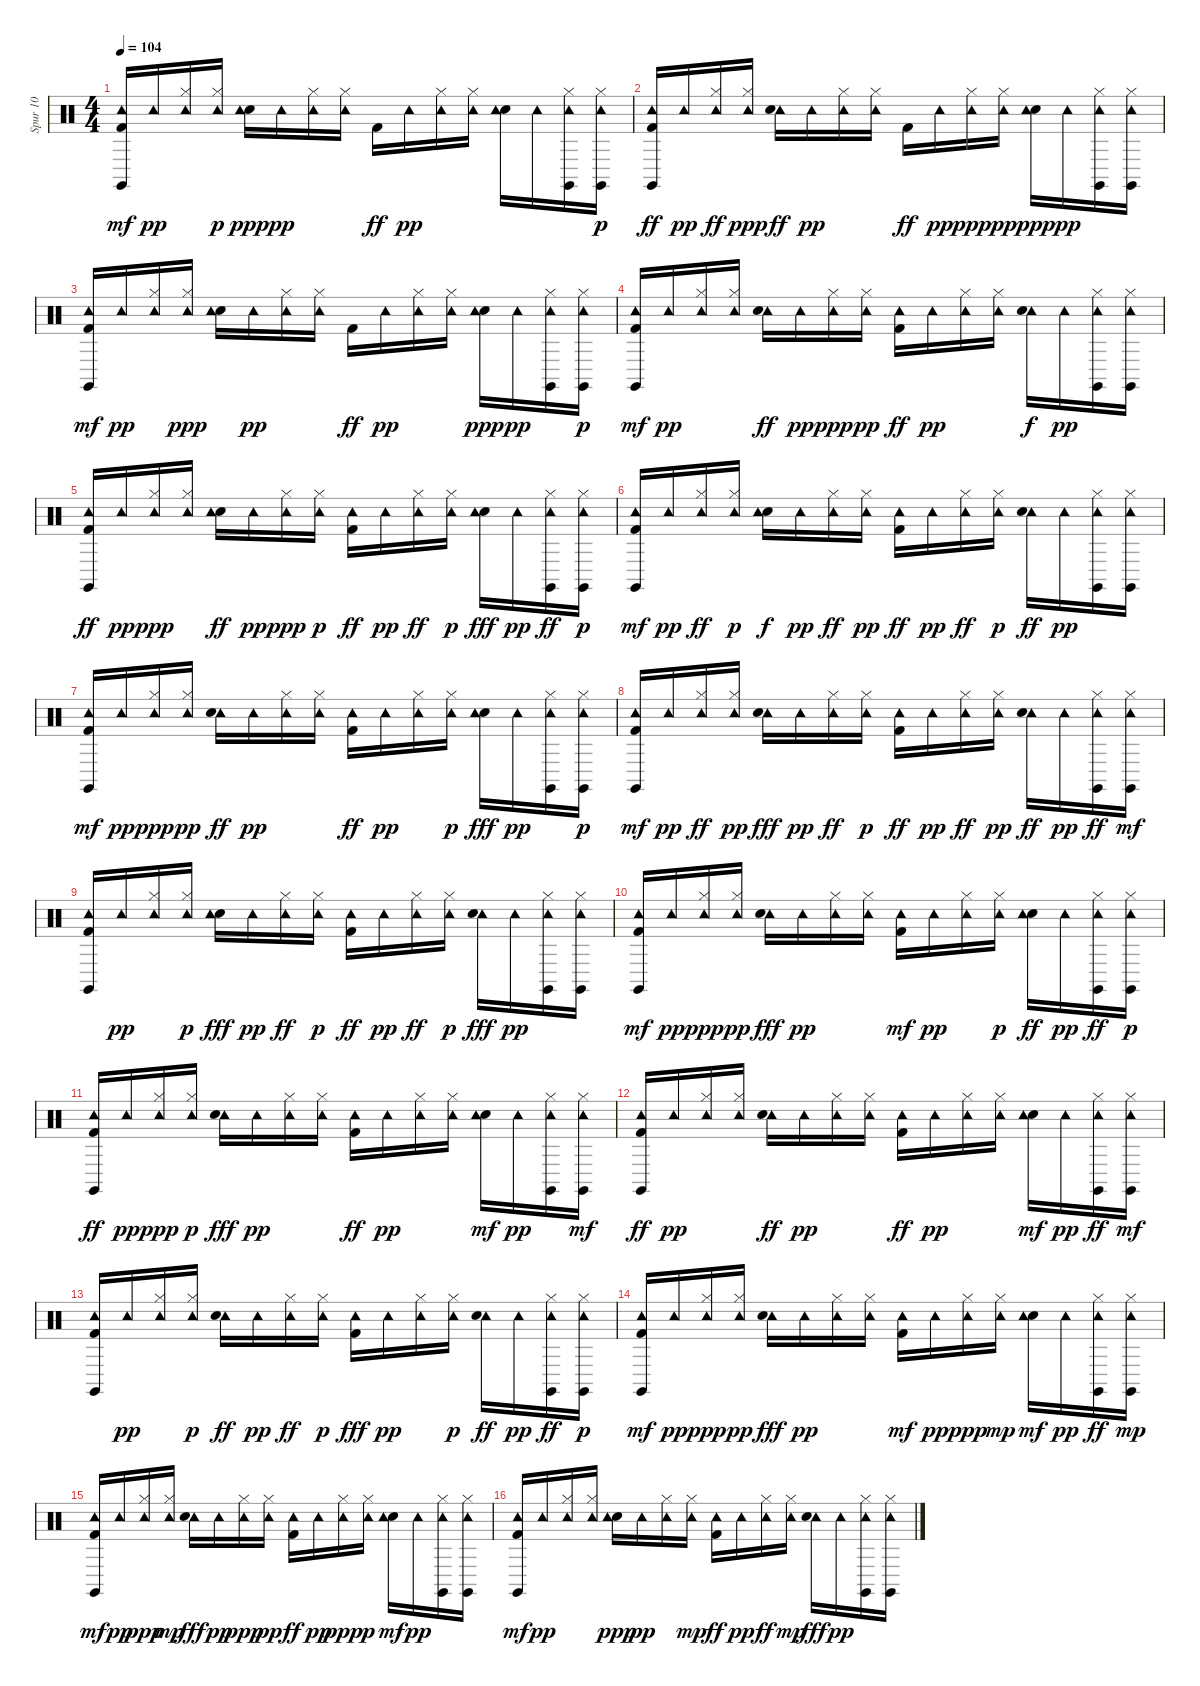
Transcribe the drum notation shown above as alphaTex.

\track ("Spur 10" "Spur 10") {instrument percussion}
\staff {score}
\articulation defaults
\ts (4 4)
\tempo 104
\clef neutral
\ks c
("Kick (hit) 2" "Tambourine (hit)" "Claves (hit)").16{dy mf} "Tambourine (hit)".16{dy pp} ("Hi-Hat (closed)" "Tambourine (hit)").16 ("Tambourine (hit)" "Hi-Hat (closed)").16{dy p} ("Electric Snare (hit)" "Tambourine (hit)").16{dy ppp} "Tambourine (hit)".16{dy pp} ("Hi-Hat (closed)" "Tambourine (hit)").16 ("Hi-Hat (closed)" "Tambourine (hit)").16 "Kick (hit) 2".16{dy ff} "Tambourine (hit)".16{dy pp} ("Hi-Hat (closed)" "Tambourine (hit)").16 ("Hi-Hat (closed)" "Tambourine (hit)").16 ("Electric Snare (hit)" "Tambourine (hit)").16 "Tambourine (hit)".16 ("Hi-Hat (closed)" "Claves (hit)" "Tambourine (hit)").16 ("Tambourine (hit)" "Claves (hit)" "Hi-Hat (closed)").16{dy p} |
("Claves (hit)" "Tambourine (hit)" "Kick (hit) 2").16{dy ff} "Tambourine (hit)".16{dy pp} ("Tambourine (hit)" "Hi-Hat (closed)").16{dy ff} ("Hi-Hat (closed)" "Tambourine (hit)").16{dy ppp} ("Tambourine (hit)" "Electric Snare (hit)").16{dy ff} "Tambourine (hit)".16{dy pp} ("Hi-Hat (closed)" "Tambourine (hit)").16 ("Hi-Hat (closed)" "Tambourine (hit)").16 "Kick (hit) 2".16{dy ff} "Tambourine (hit)".16{dy pp} ("Hi-Hat (closed)" "Tambourine (hit)").16{dy ppp} ("Hi-Hat (closed)" "Tambourine (hit)").16{dy pp} ("Electric Snare (hit)" "Tambourine (hit)").16{dy ppp} "Tambourine (hit)".16{dy pp} ("Hi-Hat (closed)" "Claves (hit)" "Tambourine (hit)").16 ("Hi-Hat (closed)" "Claves (hit)" "Tambourine (hit)").16 |
("Tambourine (hit)" "Kick (hit) 2" "Claves (hit)").16{dy mf} "Tambourine (hit)".16{dy pp} ("Hi-Hat (closed)" "Tambourine (hit)").16 ("Hi-Hat (closed)" "Tambourine (hit)").16{dy ppp} ("Electric Snare (hit)" "Tambourine (hit)").16 "Tambourine (hit)".16{dy pp} ("Hi-Hat (closed)" "Tambourine (hit)").16 ("Hi-Hat (closed)" "Tambourine (hit)").16 "Kick (hit) 2".16{dy ff} "Tambourine (hit)".16{dy pp} ("Hi-Hat (closed)" "Tambourine (hit)").16 ("Hi-Hat (closed)" "Tambourine (hit)").16 ("Electric Snare (hit)" "Tambourine (hit)").16{dy ppp} "Tambourine (hit)".16{dy pp} ("Hi-Hat (closed)" "Claves (hit)" "Tambourine (hit)").16 ("Claves (hit)" "Tambourine (hit)" "Hi-Hat (closed)").16{dy p} |
("Kick (hit) 2" "Claves (hit)" "Tambourine (hit)").16{dy mf} "Tambourine (hit)".16{dy pp} ("Hi-Hat (closed)" "Tambourine (hit)").16 ("Hi-Hat (closed)" "Tambourine (hit)").16 ("Tambourine (hit)" "Electric Snare (hit)").16{dy ff} "Tambourine (hit)".16{dy pp} ("Hi-Hat (closed)" "Tambourine (hit)").16{dy ppp} ("Hi-Hat (closed)" "Tambourine (hit)").16{dy pp} ("Tambourine (hit)" "Kick (hit) 2").16{dy ff} "Tambourine (hit)".16{dy pp} ("Hi-Hat (closed)" "Tambourine (hit)").16 ("Hi-Hat (closed)" "Tambourine (hit)").16 ("Tambourine (hit)" "Electric Snare (hit)").16{dy f} "Tambourine (hit)".16{dy pp} ("Hi-Hat (closed)" "Claves (hit)" "Tambourine (hit)").16 ("Hi-Hat (closed)" "Claves (hit)" "Tambourine (hit)").16 |
("Claves (hit)" "Tambourine (hit)" "Kick (hit) 2").16{dy ff} "Tambourine (hit)".16{dy pp} ("Hi-Hat (closed)" "Tambourine (hit)").16{dy ppp} ("Hi-Hat (closed)" "Tambourine (hit)").16 ("Electric Snare (hit)" "Tambourine (hit)").16{dy ff} "Tambourine (hit)".16{dy pp} ("Hi-Hat (closed)" "Tambourine (hit)").16{dy ppp} ("Tambourine (hit)" "Hi-Hat (closed)").16{dy p} ("Kick (hit) 2" "Tambourine (hit)").16{dy ff} "Tambourine (hit)".16{dy pp} ("Tambourine (hit)" "Hi-Hat (closed)").16{dy ff} ("Tambourine (hit)" "Hi-Hat (closed)").16{dy p} ("Electric Snare (hit)" "Tambourine (hit)").16{dy fff} "Tambourine (hit)".16{dy pp} ("Claves (hit)" "Tambourine (hit)" "Hi-Hat (closed)").16{dy ff} ("Claves (hit)" "Tambourine (hit)" "Hi-Hat (closed)").16{dy p} |
("Kick (hit) 2" "Claves (hit)" "Tambourine (hit)").16{dy mf} "Tambourine (hit)".16{dy pp} ("Tambourine (hit)" "Hi-Hat (closed)").16{dy ff} ("Tambourine (hit)" "Hi-Hat (closed)").16{dy p} ("Electric Snare (hit)" "Tambourine (hit)").16{dy f} "Tambourine (hit)".16{dy pp} ("Tambourine (hit)" "Hi-Hat (closed)").16{dy ff} ("Hi-Hat (closed)" "Tambourine (hit)").16{dy pp} ("Kick (hit) 2" "Tambourine (hit)").16{dy ff} "Tambourine (hit)".16{dy pp} ("Tambourine (hit)" "Hi-Hat (closed)").16{dy ff} ("Tambourine (hit)" "Hi-Hat (closed)").16{dy p} ("Tambourine (hit)" "Electric Snare (hit)").16{dy ff} "Tambourine (hit)".16{dy pp} ("Hi-Hat (closed)" "Claves (hit)" "Tambourine (hit)").16 ("Claves (hit)" "Hi-Hat (closed)" "Tambourine (hit)").16 |
("Kick (hit) 2" "Claves (hit)" "Tambourine (hit)").16{dy mf} "Tambourine (hit)".16{dy pp} ("Hi-Hat (closed)" "Tambourine (hit)").16{dy ppp} ("Hi-Hat (closed)" "Tambourine (hit)").16{dy pp} ("Tambourine (hit)" "Electric Snare (hit)").16{dy ff} "Tambourine (hit)".16{dy pp} ("Hi-Hat (closed)" "Tambourine (hit)").16 ("Hi-Hat (closed)" "Tambourine (hit)").16 ("Tambourine (hit)" "Kick (hit) 2").16{dy ff} "Tambourine (hit)".16{dy pp} ("Hi-Hat (closed)" "Tambourine (hit)").16 ("Tambourine (hit)" "Hi-Hat (closed)").16{dy p} ("Electric Snare (hit)" "Tambourine (hit)").16{dy fff} "Tambourine (hit)".16{dy pp} ("Hi-Hat (closed)" "Tambourine (hit)" "Claves (hit)").16 ("Claves (hit)" "Tambourine (hit)" "Hi-Hat (closed)").16{dy p} |
("Tambourine (hit)" "Kick (hit) 2" "Claves (hit)").16{dy mf} "Tambourine (hit)".16{dy pp} ("Tambourine (hit)" "Hi-Hat (closed)").16{dy ff} ("Tambourine (hit)" "Hi-Hat (closed)").16{dy pp} ("Tambourine (hit)" "Electric Snare (hit)").16{dy fff} "Tambourine (hit)".16{dy pp} ("Tambourine (hit)" "Hi-Hat (closed)").16{dy ff} ("Tambourine (hit)" "Hi-Hat (closed)").16{dy p} ("Tambourine (hit)" "Kick (hit) 2").16{dy ff} "Tambourine (hit)".16{dy pp} ("Tambourine (hit)" "Hi-Hat (closed)").16{dy ff} ("Tambourine (hit)" "Hi-Hat (closed)").16{dy pp} ("Tambourine (hit)" "Electric Snare (hit)").16{dy ff} "Tambourine (hit)".16{dy pp} ("Tambourine (hit)" "Hi-Hat (closed)" "Claves (hit)").16{dy ff} ("Hi-Hat (closed)" "Tambourine (hit)" "Claves (hit)").16{dy mf} |
("Kick (hit) 2" "Tambourine (hit)" "Claves (hit)").16 "Tambourine (hit)".16{dy pp} ("Hi-Hat (closed)" "Tambourine (hit)").16 ("Tambourine (hit)" "Hi-Hat (closed)").16{dy p} ("Electric Snare (hit)" "Tambourine (hit)").16{dy fff} "Tambourine (hit)".16{dy pp} ("Tambourine (hit)" "Hi-Hat (closed)").16{dy ff} ("Tambourine (hit)" "Hi-Hat (closed)").16{dy p} ("Kick (hit) 2" "Tambourine (hit)").16{dy ff} "Tambourine (hit)".16{dy pp} ("Tambourine (hit)" "Hi-Hat (closed)").16{dy ff} ("Tambourine (hit)" "Hi-Hat (closed)").16{dy p} ("Tambourine (hit)" "Electric Snare (hit)").16{dy fff} "Tambourine (hit)".16{dy pp} ("Hi-Hat (closed)" "Claves (hit)" "Tambourine (hit)").16 ("Hi-Hat (closed)" "Claves (hit)" "Tambourine (hit)").16 |
("Tambourine (hit)" "Kick (hit) 2" "Claves (hit)").16{dy mf} "Tambourine (hit)".16{dy pp} ("Hi-Hat (closed)" "Tambourine (hit)").16{dy ppp} ("Hi-Hat (closed)" "Tambourine (hit)").16{dy pp} ("Tambourine (hit)" "Electric Snare (hit)").16{dy fff} "Tambourine (hit)".16{dy pp} ("Hi-Hat (closed)" "Tambourine (hit)").16 ("Hi-Hat (closed)" "Tambourine (hit)").16 ("Kick (hit) 2" "Tambourine (hit)").16{dy mf} "Tambourine (hit)".16{dy pp} ("Hi-Hat (closed)" "Tambourine (hit)").16 ("Tambourine (hit)" "Hi-Hat (closed)").16{dy p} ("Electric Snare (hit)" "Tambourine (hit)").16{dy ff} "Tambourine (hit)".16{dy pp} ("Tambourine (hit)" "Hi-Hat (closed)" "Claves (hit)").16{dy ff} ("Tambourine (hit)" "Claves (hit)" "Hi-Hat (closed)").16{dy p} |
("Claves (hit)" "Tambourine (hit)" "Kick (hit) 2").16{dy ff} "Tambourine (hit)".16{dy pp} ("Hi-Hat (closed)" "Tambourine (hit)").16{dy ppp} ("Tambourine (hit)" "Hi-Hat (closed)").16{dy p} ("Tambourine (hit)" "Electric Snare (hit)").16{dy fff} "Tambourine (hit)".16{dy pp} ("Hi-Hat (closed)" "Tambourine (hit)").16 ("Hi-Hat (closed)" "Tambourine (hit)").16 ("Tambourine (hit)" "Kick (hit) 2").16{dy ff} "Tambourine (hit)".16{dy pp} ("Hi-Hat (closed)" "Tambourine (hit)").16 ("Hi-Hat (closed)" "Tambourine (hit)").16 ("Electric Snare (hit)" "Tambourine (hit)").16{dy mf} "Tambourine (hit)".16{dy pp} ("Hi-Hat (closed)" "Tambourine (hit)" "Claves (hit)").16 ("Hi-Hat (closed)" "Tambourine (hit)" "Claves (hit)").16{dy mf} |
("Tambourine (hit)" "Claves (hit)" "Kick (hit) 2").16{dy ff} "Tambourine (hit)".16{dy pp} ("Hi-Hat (closed)" "Tambourine (hit)").16 ("Hi-Hat (closed)" "Tambourine (hit)").16 ("Tambourine (hit)" "Electric Snare (hit)").16{dy ff} "Tambourine (hit)".16{dy pp} ("Hi-Hat (closed)" "Tambourine (hit)").16 ("Hi-Hat (closed)" "Tambourine (hit)").16 ("Tambourine (hit)" "Kick (hit) 2").16{dy ff} "Tambourine (hit)".16{dy pp} ("Hi-Hat (closed)" "Tambourine (hit)").16 ("Hi-Hat (closed)" "Tambourine (hit)").16 ("Electric Snare (hit)" "Tambourine (hit)").16{dy mf} "Tambourine (hit)".16{dy pp} ("Tambourine (hit)" "Hi-Hat (closed)" "Claves (hit)").16{dy ff} ("Tambourine (hit)" "Hi-Hat (closed)" "Claves (hit)").16{dy mf} |
("Kick (hit) 2" "Claves (hit)" "Tambourine (hit)").16 "Tambourine (hit)".16{dy pp} ("Hi-Hat (closed)" "Tambourine (hit)").16 ("Tambourine (hit)" "Hi-Hat (closed)").16{dy p} ("Tambourine (hit)" "Electric Snare (hit)").16{dy ff} "Tambourine (hit)".16{dy pp} ("Tambourine (hit)" "Hi-Hat (closed)").16{dy ff} ("Tambourine (hit)" "Hi-Hat (closed)").16{dy p} ("Tambourine (hit)" "Kick (hit) 2").16{dy fff} "Tambourine (hit)".16{dy pp} ("Hi-Hat (closed)" "Tambourine (hit)").16 ("Tambourine (hit)" "Hi-Hat (closed)").16{dy p} ("Tambourine (hit)" "Electric Snare (hit)").16{dy ff} "Tambourine (hit)".16{dy pp} ("Tambourine (hit)" "Hi-Hat (closed)" "Claves (hit)").16{dy ff} ("Claves (hit)" "Tambourine (hit)" "Hi-Hat (closed)").16{dy p} |
("Tambourine (hit)" "Kick (hit) 2" "Claves (hit)").16{dy mf} "Tambourine (hit)".16{dy pp} ("Hi-Hat (closed)" "Tambourine (hit)").16{dy ppp} ("Hi-Hat (closed)" "Tambourine (hit)").16{dy pp} ("Tambourine (hit)" "Electric Snare (hit)").16{dy fff} "Tambourine (hit)".16{dy pp} ("Hi-Hat (closed)" "Tambourine (hit)").16 ("Hi-Hat (closed)" "Tambourine (hit)").16 ("Kick (hit) 2" "Tambourine (hit)").16{dy mf} "Tambourine (hit)".16{dy pp} ("Hi-Hat (closed)" "Tambourine (hit)").16{dy ppp} ("Tambourine (hit)" "Hi-Hat (closed)").16{dy mp} ("Electric Snare (hit)" "Tambourine (hit)").16{dy mf} "Tambourine (hit)".16{dy pp} ("Claves (hit)" "Tambourine (hit)" "Hi-Hat (closed)").16{dy ff} ("Claves (hit)" "Tambourine (hit)" "Hi-Hat (closed)").16{dy mp} |
("Claves (hit)" "Kick (hit) 2" "Tambourine (hit)").16{dy mf} "Tambourine (hit)".16{dy pp} ("Hi-Hat (closed)" "Tambourine (hit)").16{dy ppp} ("Tambourine (hit)" "Hi-Hat (closed)").16{dy mp} ("Tambourine (hit)" "Electric Snare (hit)").16{dy fff} "Tambourine (hit)".16{dy pp} ("Hi-Hat (closed)" "Tambourine (hit)").16{dy ppp} ("Hi-Hat (closed)" "Tambourine (hit)").16{dy pp} ("Kick (hit) 2" "Tambourine (hit)").16{dy ff} "Tambourine (hit)".16{dy pp} ("Hi-Hat (closed)" "Tambourine (hit)").16{dy ppp} ("Tambourine (hit)" "Hi-Hat (closed)").16{dy p} ("Electric Snare (hit)" "Tambourine (hit)").16{dy mf} "Tambourine (hit)".16{dy pp} ("Claves (hit)" "Hi-Hat (closed)" "Tambourine (hit)").16 ("Hi-Hat (closed)" "Claves (hit)" "Tambourine (hit)").16 |
("Kick (hit) 2" "Claves (hit)" "Tambourine (hit)").16{dy mf} "Tambourine (hit)".16{dy pp} ("Hi-Hat (closed)" "Tambourine (hit)").16 ("Hi-Hat (closed)" "Tambourine (hit)").16 ("Electric Snare (hit)" "Tambourine (hit)").16{dy ppp} "Tambourine (hit)".16{dy pp} ("Hi-Hat (closed)" "Tambourine (hit)").16 ("Tambourine (hit)" "Hi-Hat (closed)").16{dy mp} ("Kick (hit) 2" "Tambourine (hit)").16{dy ff} "Tambourine (hit)".16{dy pp} ("Tambourine (hit)" "Hi-Hat (closed)").16{dy ff} ("Tambourine (hit)" "Hi-Hat (closed)").16{dy mp} ("Tambourine (hit)" "Electric Snare (hit)").16{dy fff} "Tambourine (hit)".16{dy pp} ("Hi-Hat (closed)" "Claves (hit)" "Tambourine (hit)").16 ("Hi-Hat (closed)" "Claves (hit)" "Tambourine (hit)").16
